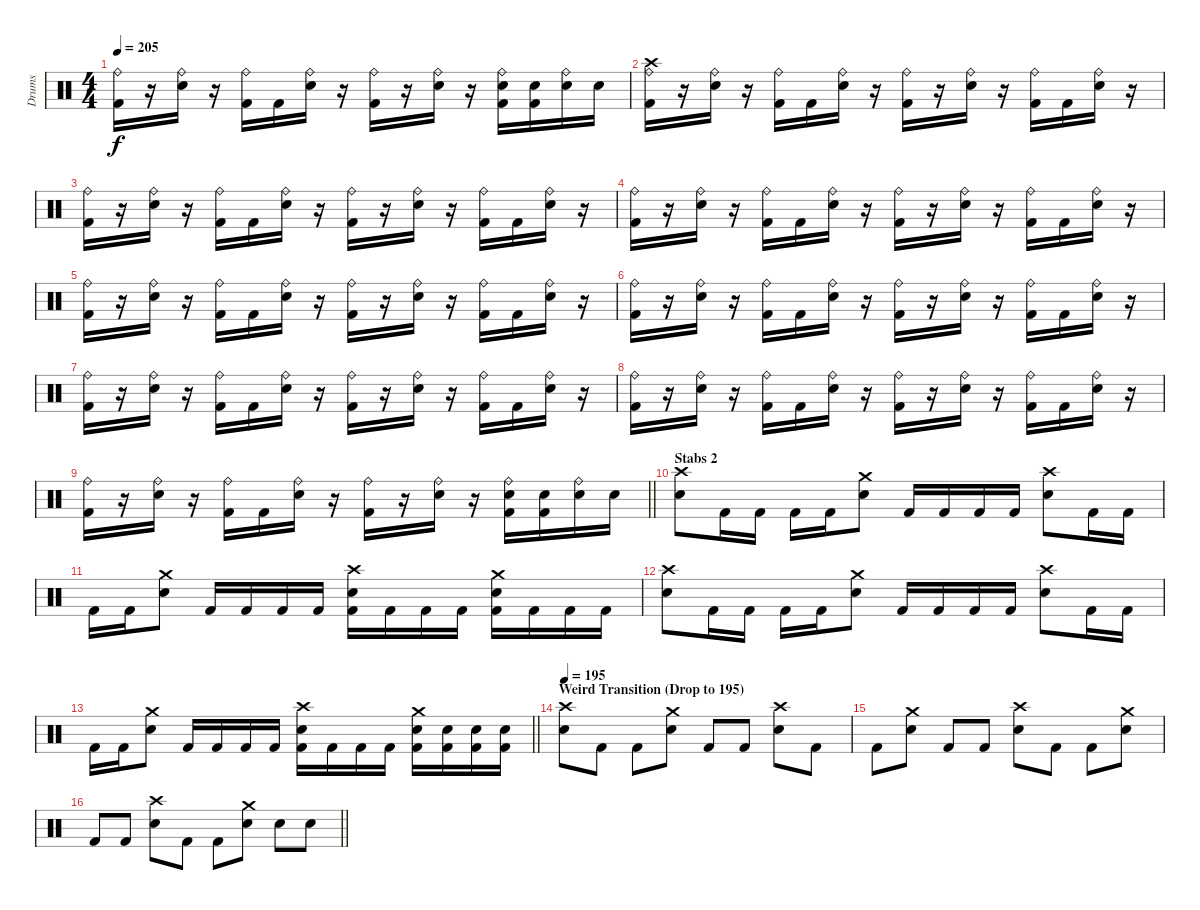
\track ("Drums" "Drums") {instrument percussion}
\staff {score}
\articulation defaults
\ts (4 4)
\tempo 205
\clef neutral
\ks c
("Ride (bell)" "Kick (hit) 2").16{dy f} r.16 ("Ride (bell)" "Snare (hit) 2").16 r.16 ("Ride (bell)" "Kick (hit) 2").16 "Kick (hit) 2".16 ("Ride (bell)" "Snare (hit) 2").16 r.16 ("Ride (bell)" "Kick (hit) 2").16 r.16 ("Ride (bell)" "Snare (hit) 2").16 r.16 ("Ride (bell)" "Snare (hit) 2" "Kick (hit) 2").16 ("Snare (hit) 2" "Kick (hit) 2").16 ("Ride (bell)" "Snare (hit) 2").16 "Snare (hit) 2".16 |
("Crash high (hit)" "Ride (bell)" "Kick (hit) 2").16 r.16 ("Ride (bell)" "Snare (hit) 2").16 r.16 ("Ride (bell)" "Kick (hit) 2").16 "Kick (hit) 2".16 ("Ride (bell)" "Snare (hit) 2").16 r.16 ("Ride (bell)" "Kick (hit) 2").16 r.16 ("Ride (bell)" "Snare (hit) 2").16 r.16 ("Ride (bell)" "Kick (hit) 2").16 "Kick (hit) 2".16 ("Ride (bell)" "Snare (hit) 2").16 r.16 |
("Ride (bell)" "Kick (hit) 2").16 r.16 ("Ride (bell)" "Snare (hit) 2").16 r.16 ("Ride (bell)" "Kick (hit) 2").16 "Kick (hit) 2".16 ("Ride (bell)" "Snare (hit) 2").16 r.16 ("Ride (bell)" "Kick (hit) 2").16 r.16 ("Ride (bell)" "Snare (hit) 2").16 r.16 ("Ride (bell)" "Kick (hit) 2").16 "Kick (hit) 2".16 ("Ride (bell)" "Snare (hit) 2").16 r.16 |
("Ride (bell)" "Kick (hit) 2").16 r.16 ("Ride (bell)" "Snare (hit) 2").16 r.16 ("Ride (bell)" "Kick (hit) 2").16 "Kick (hit) 2".16 ("Ride (bell)" "Snare (hit) 2").16 r.16 ("Ride (bell)" "Kick (hit) 2").16 r.16 ("Ride (bell)" "Snare (hit) 2").16 r.16 ("Ride (bell)" "Kick (hit) 2").16 "Kick (hit) 2".16 ("Ride (bell)" "Snare (hit) 2").16 r.16 |
("Ride (bell)" "Kick (hit) 2").16 r.16 ("Ride (bell)" "Snare (hit) 2").16 r.16 ("Ride (bell)" "Kick (hit) 2").16 "Kick (hit) 2".16 ("Ride (bell)" "Snare (hit) 2").16 r.16 ("Ride (bell)" "Kick (hit) 2").16 r.16 ("Ride (bell)" "Snare (hit) 2").16 r.16 ("Ride (bell)" "Kick (hit) 2").16 "Kick (hit) 2".16 ("Ride (bell)" "Snare (hit) 2").16 r.16 |
("Ride (bell)" "Kick (hit) 2").16 r.16 ("Ride (bell)" "Snare (hit) 2").16 r.16 ("Ride (bell)" "Kick (hit) 2").16 "Kick (hit) 2".16 ("Ride (bell)" "Snare (hit) 2").16 r.16 ("Ride (bell)" "Kick (hit) 2").16 r.16 ("Ride (bell)" "Snare (hit) 2").16 r.16 ("Ride (bell)" "Kick (hit) 2").16 "Kick (hit) 2".16 ("Ride (bell)" "Snare (hit) 2").16 r.16 |
("Ride (bell)" "Kick (hit) 2").16 r.16 ("Ride (bell)" "Snare (hit) 2").16 r.16 ("Ride (bell)" "Kick (hit) 2").16 "Kick (hit) 2".16 ("Ride (bell)" "Snare (hit) 2").16 r.16 ("Ride (bell)" "Kick (hit) 2").16 r.16 ("Ride (bell)" "Snare (hit) 2").16 r.16 ("Ride (bell)" "Kick (hit) 2").16 "Kick (hit) 2".16 ("Ride (bell)" "Snare (hit) 2").16 r.16 |
("Ride (bell)" "Kick (hit) 2").16 r.16 ("Ride (bell)" "Snare (hit) 2").16 r.16 ("Ride (bell)" "Kick (hit) 2").16 "Kick (hit) 2".16 ("Ride (bell)" "Snare (hit) 2").16 r.16 ("Ride (bell)" "Kick (hit) 2").16 r.16 ("Ride (bell)" "Snare (hit) 2").16 r.16 ("Ride (bell)" "Kick (hit) 2").16 "Kick (hit) 2".16 ("Ride (bell)" "Snare (hit) 2").16 r.16 |
\barLineRight lightlight
("Ride (bell)" "Kick (hit) 2").16 r.16 ("Ride (bell)" "Snare (hit) 2").16 r.16 ("Ride (bell)" "Kick (hit) 2").16 "Kick (hit) 2".16 ("Ride (bell)" "Snare (hit) 2").16 r.16 ("Ride (bell)" "Kick (hit) 2").16 r.16 ("Ride (bell)" "Snare (hit) 2").16 r.16 ("Ride (bell)" "Snare (hit) 2" "Kick (hit) 2").16 ("Snare (hit) 2" "Kick (hit) 2").16 ("Ride (bell)" "Snare (hit) 2").16 "Snare (hit) 2".16 |
\section ("" "Stabs 2")
("Crash high (hit)" "Snare (hit) 2").8 "Kick (hit) 2".16 "Kick (hit) 2".16 "Kick (hit) 2".16 "Kick (hit) 2".16 ("Crash medium (hit)" "Snare (hit) 2").8 "Kick (hit) 2".16 "Kick (hit) 2".16 "Kick (hit) 2".16 "Kick (hit) 2".16 ("Crash high (hit)" "Snare (hit) 2").8 "Kick (hit) 2".16 "Kick (hit) 2".16 |
"Kick (hit) 2".16 "Kick (hit) 2".16 ("Crash medium (hit)" "Snare (hit) 2").8 "Kick (hit) 2".16 "Kick (hit) 2".16 "Kick (hit) 2".16 "Kick (hit) 2".16 ("Crash high (hit)" "Snare (hit) 2" "Kick (hit) 2").16 "Kick (hit) 2".16 "Kick (hit) 2".16 "Kick (hit) 2".16 ("Crash medium (hit)" "Snare (hit) 2" "Kick (hit) 2").16 "Kick (hit) 2".16 "Kick (hit) 2".16 "Kick (hit) 2".16 |
("Crash high (hit)" "Snare (hit) 2").8 "Kick (hit) 2".16 "Kick (hit) 2".16 "Kick (hit) 2".16 "Kick (hit) 2".16 ("Crash medium (hit)" "Snare (hit) 2").8 "Kick (hit) 2".16 "Kick (hit) 2".16 "Kick (hit) 2".16 "Kick (hit) 2".16 ("Crash high (hit)" "Snare (hit) 2").8 "Kick (hit) 2".16 "Kick (hit) 2".16 |
\barLineRight lightlight "Kick (hit) 2".16 "Kick (hit) 2".16
("Crash medium (hit)" "Snare (hit) 2").8 "Kick (hit) 2".16 "Kick (hit) 2".16 "Kick (hit) 2".16 "Kick (hit) 2".16 ("Crash high (hit)" "Snare (hit) 2" "Kick (hit) 2").16 "Kick (hit) 2".16 "Kick (hit) 2".16 "Kick (hit) 2".16 ("Crash medium (hit)" "Snare (hit) 2" "Kick (hit) 2").16 ("Snare (hit) 2" "Kick (hit) 2").16 ("Snare (hit) 2" "Kick (hit) 2").16 ("Snare (hit) 2" "Kick (hit) 2").16 |
\section ("" "Weird Transition (Drop to 195)")
\tempo 195
("Crash high (hit)" "Snare (hit) 2").8 "Kick (hit) 2".8 "Kick (hit) 2".8 ("Crash medium (hit)" "Snare (hit) 2").8 "Kick (hit) 2".8 "Kick (hit) 2".8 ("Crash high (hit)" "Snare (hit) 2").8 "Kick (hit) 2".8 |
"Kick (hit) 2".8 ("Crash medium (hit)" "Snare (hit) 2").8 "Kick (hit) 2".8 "Kick (hit) 2".8 ("Crash high (hit)" "Snare (hit) 2").8 "Kick (hit) 2".8 "Kick (hit) 2".8 ("Crash medium (hit)" "Snare (hit) 2").8 |
\barLineRight lightlight "Kick (hit) 2".8 "Kick (hit) 2".8
("Crash high (hit)" "Snare (hit) 2").8 "Kick (hit) 2".8 "Kick (hit) 2".8 ("Crash medium (hit)" "Snare (hit) 2").8 "Snare (hit) 2".8 "Snare (hit) 2".8
